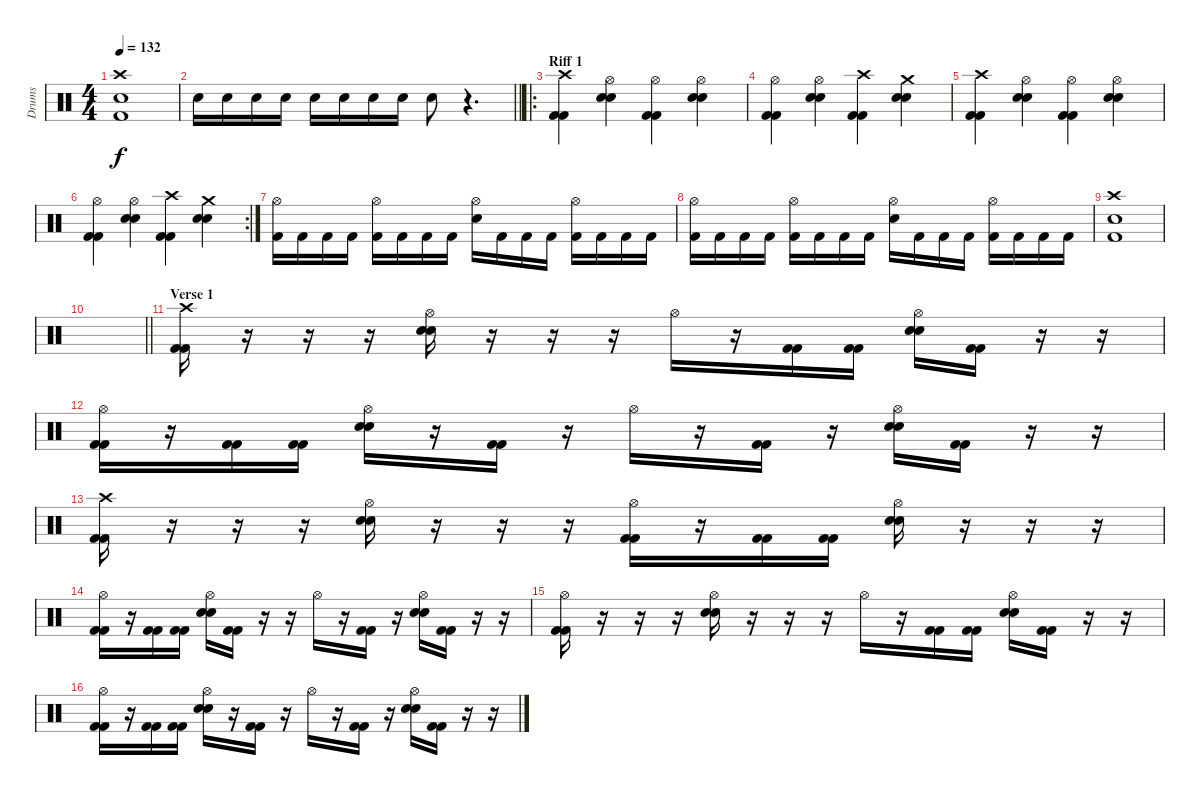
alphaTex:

\track ("Drums" "Drums") {instrument percussion}
\staff {score}
\articulation defaults
\ts (4 4)
\tempo 132
\clef neutral
\ks c
("Crash high (hit)" "Snare (hit) 2" "Kick (hit) 2").1{dy f} |
\barLineRight lightlight "Snare (hit) 2".16 "Snare (hit) 2".16 "Snare (hit) 2".16 "Snare (hit) 2".16 "Snare (hit) 2".16 "Snare (hit) 2".16 "Snare (hit) 2".16 "Snare (hit) 2".16 "Snare (hit) 2".8
r.4{d} |
\ro
\section ("" "Riff 1")
("Crash high (hit)" "Kick (hit) 2" "Kick (hit) 2").4 ("Hi-Hat (open)" "Snare (hit) 2" "Snare (hit) 2").4 ("Hi-Hat (open)" "Kick (hit) 2" "Kick (hit) 2").4 ("Hi-Hat (open)" "Snare (hit) 2" "Snare (hit) 2").4 |
("Hi-Hat (open)" "Kick (hit) 2" "Kick (hit) 2").4 ("Hi-Hat (open)" "Snare (hit) 2" "Snare (hit) 2").4 ("Crash high (hit)" "Kick (hit) 2" "Kick (hit) 2").4 ("Crash medium (hit)" "Snare (hit) 2" "Snare (hit) 2").4 |
("Crash high (hit)" "Kick (hit) 2" "Kick (hit) 2").4 ("Hi-Hat (open)" "Snare (hit) 2" "Snare (hit) 2").4 ("Hi-Hat (open)" "Kick (hit) 2" "Kick (hit) 2").4 ("Hi-Hat (open)" "Snare (hit) 2" "Snare (hit) 2").4 |
\rc 2
("Hi-Hat (open)" "Kick (hit) 2" "Kick (hit) 2").4 ("Hi-Hat (open)" "Snare (hit) 2" "Snare (hit) 2").4 ("Crash high (hit)" "Kick (hit) 2" "Kick (hit) 2").4 ("Crash medium (hit)" "Snare (hit) 2" "Snare (hit) 2").4 |
("Hi-Hat (open)" "Kick (hit) 2").16 "Kick (hit) 2".16 "Kick (hit) 2".16 "Kick (hit) 2".16 ("Hi-Hat (open)" "Kick (hit) 2").16 "Kick (hit) 2".16 "Kick (hit) 2".16 "Kick (hit) 2".16 ("Hi-Hat (open)" "Snare (hit) 2").16 "Kick (hit) 2".16 "Kick (hit) 2".16 "Kick (hit) 2".16 ("Hi-Hat (open)" "Kick (hit) 2").16 "Kick (hit) 2".16 "Kick (hit) 2".16 "Kick (hit) 2".16 |
("Hi-Hat (open)" "Kick (hit) 2").16 "Kick (hit) 2".16 "Kick (hit) 2".16 "Kick (hit) 2".16 ("Hi-Hat (open)" "Kick (hit) 2").16 "Kick (hit) 2".16 "Kick (hit) 2".16 "Kick (hit) 2".16 ("Hi-Hat (open)" "Snare (hit) 2").16 "Kick (hit) 2".16 "Kick (hit) 2".16 "Kick (hit) 2".16 ("Hi-Hat (open)" "Kick (hit) 2").16 "Kick (hit) 2".16 "Kick (hit) 2".16 "Kick (hit) 2".16 |
("Crash high (hit)" "Snare (hit) 2" "Kick (hit) 2").1 |
\barLineRight lightlight
|
\section ("" "Verse 1")
("Crash high (hit)" "Kick (hit) 2" "Kick (hit) 2").16 r.16 r.16 r.16 ("Hi-Hat (open)" "Snare (hit) 2" "Snare (hit) 2").16 r.16 r.16 r.16 "Hi-Hat (open)".16 r.16 ("Kick (hit) 2" "Kick (hit) 2").16 ("Kick (hit) 2" "Kick (hit) 2").16 ("Hi-Hat (open)" "Snare (hit) 2" "Snare (hit) 2").16 ("Kick (hit) 2" "Kick (hit) 2").16 r.16 r.16 |
("Hi-Hat (open)" "Kick (hit) 2" "Kick (hit) 2").16 r.16 ("Kick (hit) 2" "Kick (hit) 2").16 ("Kick (hit) 2" "Kick (hit) 2").16 ("Hi-Hat (open)" "Snare (hit) 2" "Snare (hit) 2").16 r.16 ("Kick (hit) 2" "Kick (hit) 2").16 r.16 "Hi-Hat (open)".16 r.16 ("Kick (hit) 2" "Kick (hit) 2").16 r.16 ("Hi-Hat (open)" "Snare (hit) 2" "Snare (hit) 2").16 ("Kick (hit) 2" "Kick (hit) 2").16 r.16 r.16 |
("Crash high (hit)" "Kick (hit) 2" "Kick (hit) 2").16 r.16 r.16 r.16 ("Hi-Hat (open)" "Snare (hit) 2" "Snare (hit) 2").16 r.16 r.16 r.16 ("Hi-Hat (open)" "Kick (hit) 2" "Kick (hit) 2").16 r.16 ("Kick (hit) 2" "Kick (hit) 2").16 ("Kick (hit) 2" "Kick (hit) 2").16 ("Hi-Hat (open)" "Snare (hit) 2" "Snare (hit) 2").16 r.16 r.16 r.16 |
("Hi-Hat (open)" "Kick (hit) 2" "Kick (hit) 2").16 r.16 ("Kick (hit) 2" "Kick (hit) 2").16 ("Kick (hit) 2" "Kick (hit) 2").16 ("Hi-Hat (open)" "Snare (hit) 2" "Snare (hit) 2").16 ("Kick (hit) 2" "Kick (hit) 2").16 r.16 r.16 "Hi-Hat (open)".16 r.16 ("Kick (hit) 2" "Kick (hit) 2").16 r.16 ("Hi-Hat (open)" "Snare (hit) 2" "Snare (hit) 2").16 ("Kick (hit) 2" "Kick (hit) 2").16 r.16 r.16 |
("Hi-Hat (open)" "Kick (hit) 2" "Kick (hit) 2").16 r.16 r.16 r.16 ("Hi-Hat (open)" "Snare (hit) 2" "Snare (hit) 2").16 r.16 r.16 r.16 "Hi-Hat (open)".16 r.16 ("Kick (hit) 2" "Kick (hit) 2").16 ("Kick (hit) 2" "Kick (hit) 2").16 ("Hi-Hat (open)" "Snare (hit) 2" "Snare (hit) 2").16 ("Kick (hit) 2" "Kick (hit) 2").16 r.16 r.16 |
("Hi-Hat (open)" "Kick (hit) 2" "Kick (hit) 2").16 r.16 ("Kick (hit) 2" "Kick (hit) 2").16 ("Kick (hit) 2" "Kick (hit) 2").16 ("Hi-Hat (open)" "Snare (hit) 2" "Snare (hit) 2").16 r.16 ("Kick (hit) 2" "Kick (hit) 2").16 r.16 "Hi-Hat (open)".16 r.16 ("Kick (hit) 2" "Kick (hit) 2").16 r.16 ("Hi-Hat (open)" "Snare (hit) 2" "Snare (hit) 2").16 ("Kick (hit) 2" "Kick (hit) 2").16 r.16 r.16
